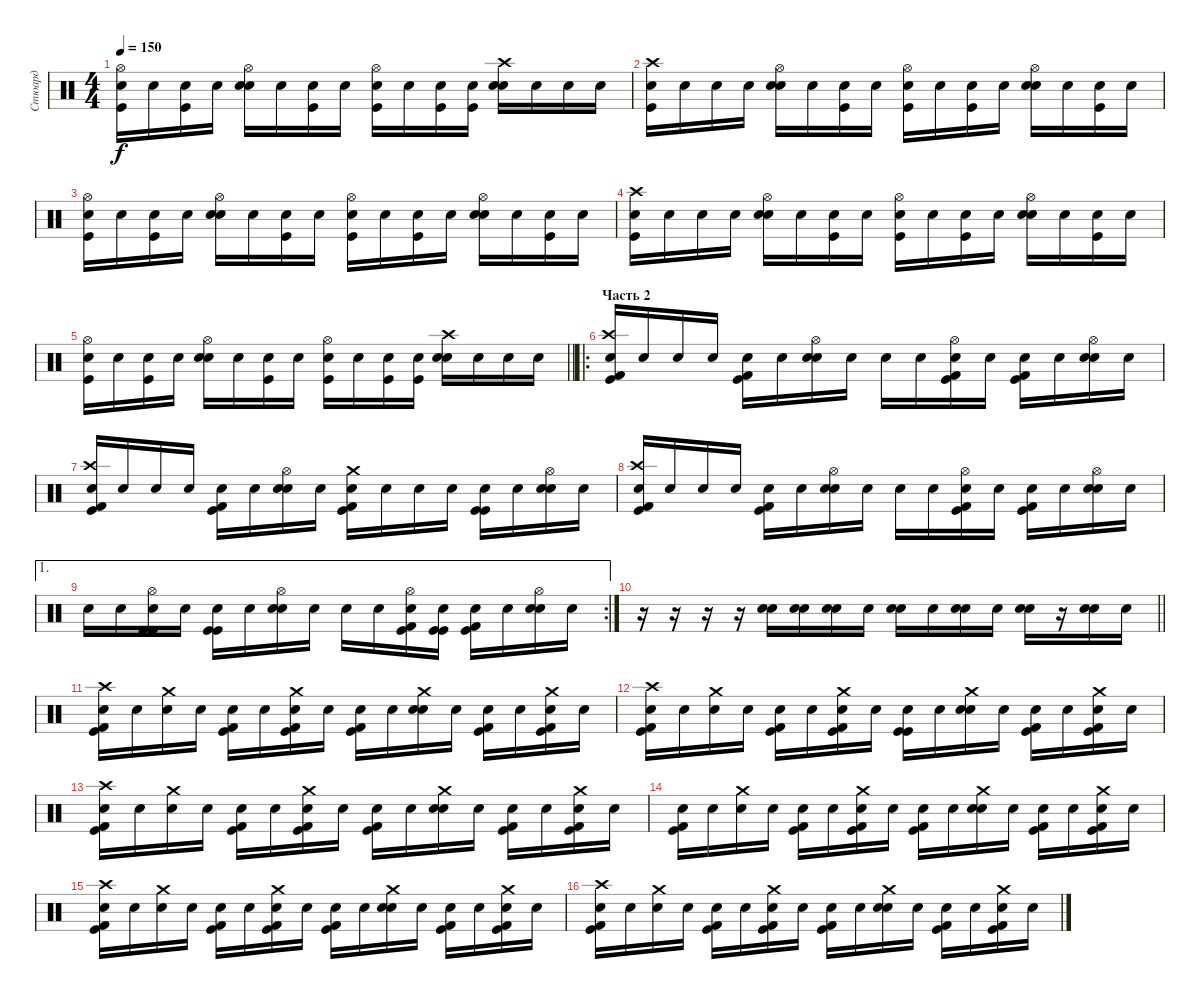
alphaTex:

\track ("Стюард" "Стюард") {instrument percussion}
\staff {score}
\articulation defaults
\ts (4 4)
\tempo 150
\clef neutral
\ks c
("Hi-Hat (open)" "Kick (hit)" "Snare (hit)"{x}).16{dy f} "Snare (hit)"{x}.16 ("Kick (hit)" "Snare (hit)"{x}).16 "Snare (hit)"{x}.16 ("Hi-Hat (open)" "Snare (hit) 2" "Snare (hit)"{x}).16 "Snare (hit)"{x}.16 ("Kick (hit)" "Snare (hit)"{x}).16 "Snare (hit)"{x}.16 ("Hi-Hat (open)" "Kick (hit)" "Snare (hit)"{x}).16 "Snare (hit)"{x}.16 ("Kick (hit)" "Snare (hit)"{x}).16 ("Kick (hit)" "Snare (hit)"{x}).16 ("Crash high (hit)" "Snare (hit) 2" "Snare (hit)"{x}).16 "Snare (hit)"{x}.16 "Snare (hit)"{x}.16 "Snare (hit)"{x}.16 |
("Crash high (hit)" "Kick (hit)" "Snare (hit)"{x}).16 "Snare (hit)"{x}.16 "Snare (hit)"{x}.16 "Snare (hit)"{x}.16 ("Hi-Hat (open)" "Snare (hit) 2" "Snare (hit)"{x}).16 "Snare (hit)"{x}.16 ("Kick (hit)" "Snare (hit)"{x}).16 "Snare (hit)"{x}.16 ("Hi-Hat (open)" "Kick (hit)" "Snare (hit)"{x}).16 "Snare (hit)"{x}.16 ("Kick (hit)" "Snare (hit)"{x}).16 "Snare (hit)"{x}.16 ("Hi-Hat (open)" "Snare (hit) 2" "Snare (hit)"{x}).16 "Snare (hit)"{x}.16 ("Kick (hit)" "Snare (hit)"{x}).16 "Snare (hit)"{x}.16 |
("Hi-Hat (open)" "Kick (hit)" "Snare (hit)"{x}).16 "Snare (hit)"{x}.16 ("Kick (hit)" "Snare (hit)"{x}).16 "Snare (hit)"{x}.16 ("Hi-Hat (open)" "Snare (hit) 2" "Snare (hit)"{x}).16 "Snare (hit)"{x}.16 ("Kick (hit)" "Snare (hit)"{x}).16 "Snare (hit)"{x}.16 ("Hi-Hat (open)" "Kick (hit)" "Snare (hit)"{x}).16 "Snare (hit)"{x}.16 ("Kick (hit)" "Snare (hit)"{x}).16 "Snare (hit)"{x}.16 ("Hi-Hat (open)" "Snare (hit) 2" "Snare (hit)"{x}).16 "Snare (hit)"{x}.16 ("Kick (hit)" "Snare (hit)"{x}).16 "Snare (hit)"{x}.16 |
("Crash high (hit)" "Kick (hit)" "Snare (hit)"{x}).16 "Snare (hit)"{x}.16 "Snare (hit)"{x}.16 "Snare (hit)"{x}.16 ("Hi-Hat (open)" "Snare (hit) 2" "Snare (hit)"{x}).16 "Snare (hit)"{x}.16 ("Kick (hit)" "Snare (hit)"{x}).16 "Snare (hit)"{x}.16 ("Hi-Hat (open)" "Kick (hit)" "Snare (hit)"{x}).16 "Snare (hit)"{x}.16 ("Kick (hit)" "Snare (hit)"{x}).16 "Snare (hit)"{x}.16 ("Hi-Hat (open)" "Snare (hit) 2" "Snare (hit)"{x}).16 "Snare (hit)"{x}.16 ("Kick (hit)" "Snare (hit)"{x}).16 "Snare (hit)"{x}.16 |
\barLineRight lightlight
("Hi-Hat (open)" "Kick (hit)" "Snare (hit)"{x}).16 "Snare (hit)"{x}.16 ("Kick (hit)" "Snare (hit)"{x}).16 "Snare (hit)"{x}.16 ("Hi-Hat (open)" "Snare (hit) 2" "Snare (hit)"{x}).16 "Snare (hit)"{x}.16 ("Kick (hit)" "Snare (hit)"{x}).16 "Snare (hit)"{x}.16 ("Hi-Hat (open)" "Kick (hit)" "Snare (hit)"{x}).16 "Snare (hit)"{x}.16 ("Kick (hit)" "Snare (hit)"{x}).16 ("Kick (hit)" "Snare (hit)"{x}).16 ("Crash high (hit)" "Snare (hit) 2" "Snare (hit)"{x}).16 "Snare (hit)"{x}.16 "Snare (hit)"{x}.16 "Snare (hit)"{x}.16 |
\ro
\section ("" "Часть 2")
("Crash high (hit)" "Kick (hit) 2" "Kick (hit)" "Snare (hit)"{x}).16 "Snare (hit)"{x}.16 "Snare (hit)"{x}.16 "Snare (hit)"{x}.16 ("Kick (hit) 2" "Kick (hit)" "Snare (hit)"{x}).16 "Snare (hit)"{x}.16 ("Hi-Hat (open)" "Snare (hit) 2" "Snare (hit)"{x}).16 "Snare (hit)"{x}.16 "Snare (hit)"{x}.16 "Snare (hit)"{x}.16 ("Hi-Hat (open)" "Kick (hit) 2" "Kick (hit)" "Snare (hit)"{x}).16 "Snare (hit)"{x}.16 ("Kick (hit) 2" "Kick (hit)" "Snare (hit)"{x}).16 "Snare (hit)"{x}.16 ("Hi-Hat (open)" "Snare (hit) 2" "Snare (hit)"{x}).16 "Snare (hit)"{x}.16 |
("Crash high (hit)" "Kick (hit) 2" "Kick (hit)" "Snare (hit)"{x}).16 "Snare (hit)"{x}.16 "Snare (hit)"{x}.16 "Snare (hit)"{x}.16 ("Kick (hit) 2" "Kick (hit)" "Snare (hit)"{x}).16 "Snare (hit)"{x}.16 ("Hi-Hat (open)" "Snare (hit) 2" "Snare (hit)"{x}).16 "Snare (hit)"{x}.16 ("Crash medium (hit)" "Kick (hit) 2" "Kick (hit)" "Snare (hit)"{x}).16 "Snare (hit)"{x}.16 "Snare (hit)"{x}.16 "Snare (hit)"{x}.16 ("Kick (hit)" "Kick (hit)" "Snare (hit)"{x}).16 "Snare (hit)"{x}.16 ("Hi-Hat (open)" "Snare (hit) 2" "Snare (hit)"{x}).16 "Snare (hit)"{x}.16 |
("Crash high (hit)" "Kick (hit) 2" "Kick (hit)" "Snare (hit)"{x}).16 "Snare (hit)"{x}.16 "Snare (hit)"{x}.16 "Snare (hit)"{x}.16 ("Kick (hit) 2" "Kick (hit)" "Snare (hit)"{x}).16 "Snare (hit)"{x}.16 ("Hi-Hat (open)" "Snare (hit) 2" "Snare (hit)"{x}).16 "Snare (hit)"{x}.16 "Snare (hit)"{x}.16 "Snare (hit)"{x}.16 ("Hi-Hat (open)" "Kick (hit) 2" "Kick (hit)" "Snare (hit)"{x}).16 "Snare (hit)"{x}.16 ("Kick (hit) 2" "Kick (hit)" "Snare (hit)"{x}).16 "Snare (hit)"{x}.16 ("Hi-Hat (open)" "Snare (hit) 2" "Snare (hit)"{x}).16 "Snare (hit)"{x}.16 |
\ae 1
\rc 2 "Snare (hit)"{x}.16 "Snare (hit)"{x}.16
("Hi-Hat (open)" "Kick (hit)" "Kick (hit)" "Snare (hit)"{x}).16 "Snare (hit)"{x}.16 ("Kick (hit)" "Kick (hit)" "Snare (hit)"{x}).16 "Snare (hit)"{x}.16 ("Hi-Hat (open)" "Snare (hit) 2" "Snare (hit)"{x}).16 "Snare (hit)"{x}.16 "Snare (hit)"{x}.16 "Snare (hit)"{x}.16 ("Hi-Hat (open)" "Kick (hit)" "Kick (hit) 2" "Snare (hit)"{x}).16 ("Kick (hit)" "Kick (hit)" "Snare (hit)"{x}).16 ("Kick (hit) 2" "Kick (hit)" "Snare (hit)"{x}).16 "Snare (hit)"{x}.16 ("Hi-Hat (open)" "Snare (hit) 2" "Snare (hit)"{x}).16 "Snare (hit)"{x}.16 |
\barLineRight lightlight
r.16 r.16 r.16 r.16 ("Snare (hit) 2" "Snare (hit)"{x}).16 ("Snare (hit) 2" "Snare (hit)"{x}).16 ("Snare (hit) 2" "Snare (hit)"{x}).16 "Snare (hit)"{x}.16 ("Snare (hit) 2" "Snare (hit)"{x}).16 "Snare (hit)"{x}.16 ("Snare (hit) 2" "Snare (hit)"{x}).16 "Snare (hit)"{x}.16 ("Snare (hit) 2" "Snare (hit)"{x}).16 r.16 ("Snare (hit) 2" "Snare (hit)"{x}).16 "Snare (hit)"{x}.16 |
\section ("" "")
("Crash high (hit)" "Kick (hit) 2" "Kick (hit)" "Snare (hit)"{x}).16 "Snare (hit)"{x}.16 ("Crash medium (hit)" "Snare (hit)"{x}).16 "Snare (hit)"{x}.16 ("Kick (hit) 2" "Kick (hit)" "Snare (hit)"{x}).16 "Snare (hit)"{x}.16 ("Crash medium (hit)" "Kick (hit) 2" "Kick (hit)" "Snare (hit)"{x}).16 "Snare (hit)"{x}.16 ("Kick (hit) 2" "Kick (hit)" "Snare (hit)"{x}).16 "Snare (hit)"{x}.16 ("Crash medium (hit)" "Snare (hit) 2" "Snare (hit)"{x}).16 "Snare (hit)"{x}.16 ("Kick (hit) 2" "Kick (hit)" "Snare (hit)"{x}).16 "Snare (hit)"{x}.16 ("Crash medium (hit)" "Kick (hit)" "Kick (hit) 2" "Snare (hit)"{x}).16 "Snare (hit)"{x}.16 |
("Crash high (hit)" "Kick (hit) 2" "Kick (hit)" "Snare (hit)"{x}).16 "Snare (hit)"{x}.16 ("Crash medium (hit)" "Snare (hit)"{x}).16 "Snare (hit)"{x}.16 ("Kick (hit) 2" "Kick (hit)" "Snare (hit)"{x}).16 "Snare (hit)"{x}.16 ("Crash medium (hit)" "Kick (hit) 2" "Kick (hit)" "Snare (hit)"{x}).16 "Snare (hit)"{x}.16 ("Kick (hit)" "Kick (hit)" "Snare (hit)"{x}).16 "Snare (hit)"{x}.16 ("Crash medium (hit)" "Snare (hit) 2" "Snare (hit)"{x}).16 "Snare (hit)"{x}.16 ("Kick (hit) 2" "Kick (hit)" "Snare (hit)"{x}).16 "Snare (hit)"{x}.16 ("Crash medium (hit)" "Kick (hit) 2" "Kick (hit)" "Snare (hit)"{x}).16 "Snare (hit)"{x}.16 |
("Crash high (hit)" "Kick (hit) 2" "Kick (hit)" "Snare (hit)"{x}).16 "Snare (hit)"{x}.16 ("Crash medium (hit)" "Snare (hit)"{x}).16 "Snare (hit)"{x}.16 ("Kick (hit) 2" "Kick (hit)" "Snare (hit)"{x}).16 "Snare (hit)"{x}.16 ("Crash medium (hit)" "Kick (hit) 2" "Kick (hit)" "Snare (hit)"{x}).16 "Snare (hit)"{x}.16 ("Kick (hit) 2" "Kick (hit)" "Snare (hit)"{x}).16 "Snare (hit)"{x}.16 ("Crash medium (hit)" "Snare (hit) 2" "Snare (hit)"{x}).16 "Snare (hit)"{x}.16 ("Kick (hit) 2" "Kick (hit)" "Snare (hit)"{x}).16 "Snare (hit)"{x}.16 ("Crash medium (hit)" "Kick (hit)" "Kick (hit) 2" "Snare (hit)"{x}).16 "Snare (hit)"{x}.16 |
("Kick (hit) 2" "Kick (hit)" "Snare (hit)"{x}).16 "Snare (hit)"{x}.16 ("Crash medium (hit)" "Snare (hit)"{x}).16 "Snare (hit)"{x}.16 ("Kick (hit) 2" "Kick (hit)" "Snare (hit)"{x}).16 "Snare (hit)"{x}.16 ("Crash medium (hit)" "Kick (hit) 2" "Kick (hit)" "Snare (hit)"{x}).16 "Snare (hit)"{x}.16 ("Kick (hit) 2" "Kick (hit)" "Snare (hit)"{x}).16 "Snare (hit)"{x}.16 ("Crash medium (hit)" "Snare (hit) 2" "Snare (hit)"{x}).16 "Snare (hit)"{x}.16 ("Kick (hit) 2" "Kick (hit)" "Snare (hit)"{x}).16 "Snare (hit)"{x}.16 ("Crash medium (hit)" "Kick (hit)" "Kick (hit) 2" "Snare (hit)"{x}).16 "Snare (hit)"{x}.16 |
("Crash high (hit)" "Kick (hit) 2" "Kick (hit)" "Snare (hit)"{x}).16 "Snare (hit)"{x}.16 ("Crash medium (hit)" "Snare (hit)"{x}).16 "Snare (hit)"{x}.16 ("Kick (hit) 2" "Kick (hit)" "Snare (hit)"{x}).16 "Snare (hit)"{x}.16 ("Crash medium (hit)" "Kick (hit) 2" "Kick (hit)" "Snare (hit)"{x}).16 "Snare (hit)"{x}.16 ("Kick (hit) 2" "Kick (hit)" "Snare (hit)"{x}).16 "Snare (hit)"{x}.16 ("Crash medium (hit)" "Snare (hit) 2" "Snare (hit)"{x}).16 "Snare (hit)"{x}.16 ("Kick (hit) 2" "Kick (hit)" "Snare (hit)"{x}).16 "Snare (hit)"{x}.16 ("Crash medium (hit)" "Kick (hit)" "Kick (hit) 2" "Snare (hit)"{x}).16 "Snare (hit)"{x}.16 |
("Crash high (hit)" "Kick (hit) 2" "Kick (hit)" "Snare (hit)"{x}).16 "Snare (hit)"{x}.16 ("Crash medium (hit)" "Snare (hit)"{x}).16 "Snare (hit)"{x}.16 ("Kick (hit) 2" "Kick (hit)" "Snare (hit)"{x}).16 "Snare (hit)"{x}.16 ("Crash medium (hit)" "Kick (hit) 2" "Kick (hit)" "Snare (hit)"{x}).16 "Snare (hit)"{x}.16 ("Kick (hit) 2" "Kick (hit)" "Snare (hit)"{x}).16 "Snare (hit)"{x}.16 ("Crash medium (hit)" "Snare (hit) 2" "Snare (hit)"{x}).16 "Snare (hit)"{x}.16 ("Kick (hit) 2" "Kick (hit)" "Snare (hit)"{x}).16 "Snare (hit)"{x}.16 ("Crash medium (hit)" "Kick (hit)" "Kick (hit) 2" "Snare (hit)"{x}).16 "Snare (hit)"{x}.16
